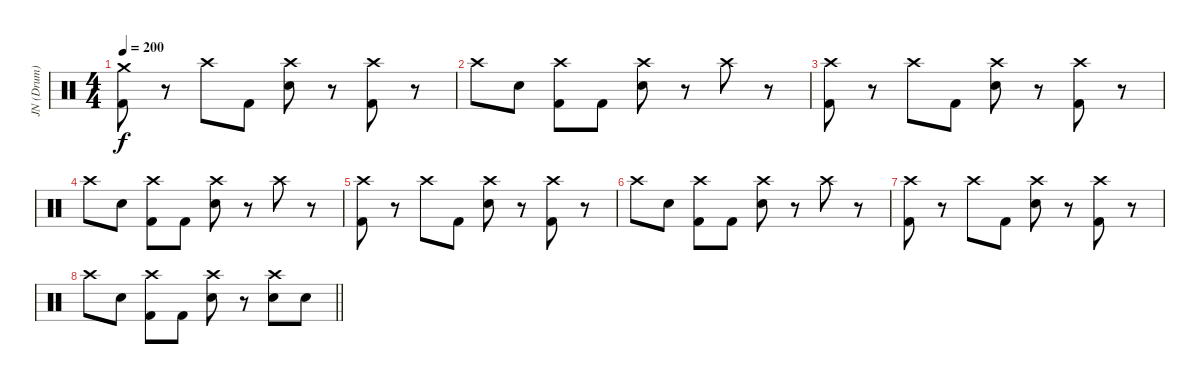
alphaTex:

\track ("JN (Drum)" "JN (Drum)") {instrument percussion}
\staff {score}
\articulation defaults
\ts (4 4)
\tempo 200
\clef neutral
\ks c
("Crash medium (hit)" "Kick (hit) 2").8{dy f} r.8 "Crash high (hit)".8 "Kick (hit) 2".8 ("Crash high (hit)" "Electric Snare (hit)").8 r.8 ("Crash high (hit)" "Kick (hit) 2").8 r.8 |
"Crash high (hit)".8 "Electric Snare (hit)".8 ("Crash high (hit)" "Kick (hit) 2").8 "Kick (hit) 2".8 ("Crash high (hit)" "Electric Snare (hit)").8 r.8 "Crash high (hit)".8 r.8 |
("Crash high (hit)" "Kick (hit) 2").8 r.8 "Crash high (hit)".8 "Kick (hit) 2".8 ("Crash high (hit)" "Electric Snare (hit)").8 r.8 ("Crash high (hit)" "Kick (hit) 2").8 r.8 |
"Crash high (hit)".8 "Electric Snare (hit)".8 ("Crash high (hit)" "Kick (hit) 2").8 "Kick (hit) 2".8 ("Crash high (hit)" "Electric Snare (hit)").8 r.8 "Crash high (hit)".8 r.8 |
("Crash high (hit)" "Kick (hit) 2").8 r.8 "Crash high (hit)".8 "Kick (hit) 2".8 ("Crash high (hit)" "Electric Snare (hit)").8 r.8 ("Crash high (hit)" "Kick (hit) 2").8 r.8 |
"Crash high (hit)".8 "Electric Snare (hit)".8 ("Crash high (hit)" "Kick (hit) 2").8 "Kick (hit) 2".8 ("Crash high (hit)" "Electric Snare (hit)").8 r.8 "Crash high (hit)".8 r.8 |
("Crash high (hit)" "Kick (hit) 2").8 r.8 "Crash high (hit)".8 "Kick (hit) 2".8 ("Crash high (hit)" "Electric Snare (hit)").8 r.8 ("Crash high (hit)" "Kick (hit) 2").8 r.8 |
\barLineRight lightlight "Crash high (hit)".8 "Electric Snare (hit)".8
("Crash high (hit)" "Kick (hit) 2").8 "Kick (hit) 2".8 ("Crash high (hit)" "Electric Snare (hit)").8 r.8 ("Crash high (hit)" "Electric Snare (hit)").8 "Electric Snare (hit)".8
